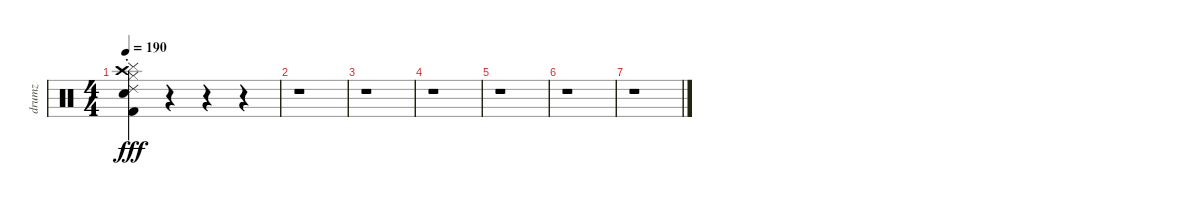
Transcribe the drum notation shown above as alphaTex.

\track ("drumz" "drumz") {instrument percussion}
\staff {score}
\articulation defaults
\ts (4 4)
\tempo 190
\clef neutral
\ks c
("Crash high (hit)" "Cymbal (hit)" "Ride (choke) 2" "Hi-Hat (closed)" "Hand Clap (hit)" "Kick (hit) 2").4{dy fff} r.4 r.4 r.4 |
r.1 |
r.1 |
r.1 |
r.1 |
r.1 |
r.1
